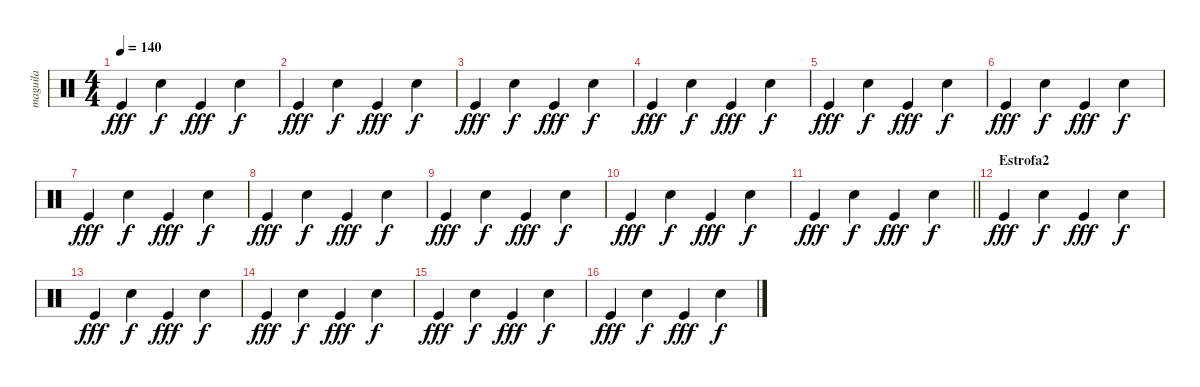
\track ("maguila" "maguila") {instrument percussion}
\staff {score}
\articulation defaults
\ts (4 4)
\tempo 140
\clef neutral
\ks c "Kick (hit)".4{dy fff} "Snare (hit) 2".4{dy f} "Kick (hit)".4{dy fff} "Snare (hit) 2".4{dy f}
|
"Kick (hit)".4{dy fff} "Snare (hit) 2".4{dy f} "Kick (hit)".4{dy fff} "Snare (hit) 2".4{dy f} |
"Kick (hit)".4{dy fff} "Snare (hit) 2".4{dy f} "Kick (hit)".4{dy fff} "Snare (hit) 2".4{dy f} |
"Kick (hit)".4{dy fff} "Snare (hit) 2".4{dy f} "Kick (hit)".4{dy fff} "Snare (hit) 2".4{dy f} |
"Kick (hit)".4{dy fff} "Snare (hit) 2".4{dy f} "Kick (hit)".4{dy fff} "Snare (hit) 2".4{dy f} |
"Kick (hit)".4{dy fff} "Snare (hit) 2".4{dy f} "Kick (hit)".4{dy fff} "Snare (hit) 2".4{dy f} |
"Kick (hit)".4{dy fff} "Snare (hit) 2".4{dy f} "Kick (hit)".4{dy fff} "Snare (hit) 2".4{dy f} |
"Kick (hit)".4{dy fff} "Snare (hit) 2".4{dy f} "Kick (hit)".4{dy fff} "Snare (hit) 2".4{dy f} |
"Kick (hit)".4{dy fff} "Snare (hit) 2".4{dy f} "Kick (hit)".4{dy fff} "Snare (hit) 2".4{dy f} |
"Kick (hit)".4{dy fff} "Snare (hit) 2".4{dy f} "Kick (hit)".4{dy fff} "Snare (hit) 2".4{dy f} |
\barLineRight lightlight "Kick (hit)".4{dy fff} "Snare (hit) 2".4{dy f} "Kick (hit)".4{dy fff} "Snare (hit) 2".4{dy f}
|
\section ("" "Estrofa2")
"Kick (hit)".4{dy fff} "Snare (hit) 2".4{dy f} "Kick (hit)".4{dy fff} "Snare (hit) 2".4{dy f} |
"Kick (hit)".4{dy fff} "Snare (hit) 2".4{dy f} "Kick (hit)".4{dy fff} "Snare (hit) 2".4{dy f} |
"Kick (hit)".4{dy fff} "Snare (hit) 2".4{dy f} "Kick (hit)".4{dy fff} "Snare (hit) 2".4{dy f} |
"Kick (hit)".4{dy fff} "Snare (hit) 2".4{dy f} "Kick (hit)".4{dy fff} "Snare (hit) 2".4{dy f} |
"Kick (hit)".4{dy fff} "Snare (hit) 2".4{dy f} "Kick (hit)".4{dy fff} "Snare (hit) 2".4{dy f}
